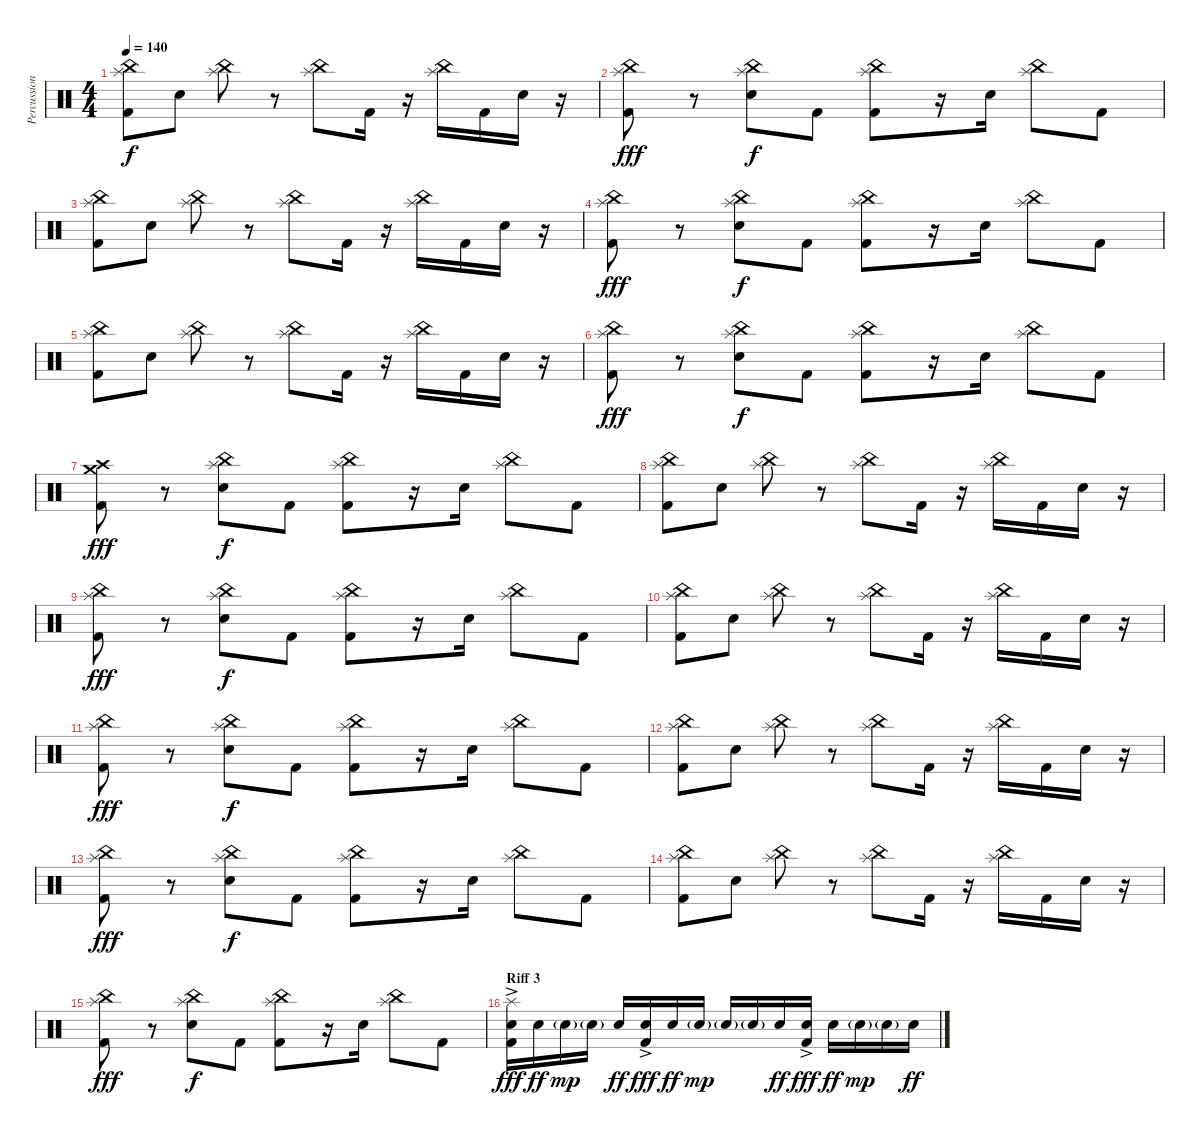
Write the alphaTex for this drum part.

\track ("Percussion" "Percussion") {instrument percussion}
\staff {score}
\articulation defaults
\ts (4 4)
\tempo 140
\clef neutral
\ks c
("Splash (hit)" "China (hit)" "Kick (hit) 2").8{dy f} "Electric Snare (hit)".8 ("Splash (hit)" "China (hit)").8 r.8 ("Splash (hit)" "China (hit)").8 "Kick (hit) 2".16 r.16 ("Splash (hit)" "China (hit)").16 "Kick (hit) 2".16 "Electric Snare (hit)".16 r.16 |
("Splash (hit)" "China (hit)" "Kick (hit) 2").8{dy fff} r.8 ("Splash (hit)" "China (hit)" "Electric Snare (hit)").8{dy f} "Kick (hit) 2".8 ("Splash (hit)" "China (hit)" "Kick (hit) 2").8 r.16 "Electric Snare (hit)".16 ("Splash (hit)" "China (hit)").8 "Kick (hit) 2".8 |
("Splash (hit)" "China (hit)" "Kick (hit) 2").8 "Electric Snare (hit)".8 ("Splash (hit)" "China (hit)").8 r.8 ("Splash (hit)" "China (hit)").8 "Kick (hit) 2".16 r.16 ("Splash (hit)" "China (hit)").16 "Kick (hit) 2".16 "Electric Snare (hit)".16 r.16 |
("Splash (hit)" "China (hit)" "Kick (hit) 2").8{dy fff} r.8 ("Splash (hit)" "China (hit)" "Electric Snare (hit)").8{dy f} "Kick (hit) 2".8 ("Splash (hit)" "China (hit)" "Kick (hit) 2").8 r.16 "Electric Snare (hit)".16 ("Splash (hit)" "China (hit)").8 "Kick (hit) 2".8 |
("Splash (hit)" "China (hit)" "Kick (hit) 2").8 "Electric Snare (hit)".8 ("Splash (hit)" "China (hit)").8 r.8 ("Splash (hit)" "China (hit)").8 "Kick (hit) 2".16 r.16 ("Splash (hit)" "China (hit)").16 "Kick (hit) 2".16 "Electric Snare (hit)".16 r.16 |
("Splash (hit)" "China (hit)" "Kick (hit) 2").8{dy fff} r.8 ("Splash (hit)" "China (hit)" "Electric Snare (hit)").8{dy f} "Kick (hit) 2".8 ("Splash (hit)" "China (hit)" "Kick (hit) 2").8 r.16 "Electric Snare (hit)".16 ("Splash (hit)" "China (hit)").8 "Kick (hit) 2".8 |
("Crash medium (hit)" "Crash high (hit)" "Kick (hit) 2").8{dy fff} r.8 ("Splash (hit)" "China (hit)" "Electric Snare (hit)").8{dy f} "Kick (hit) 2".8 ("Splash (hit)" "China (hit)" "Kick (hit) 2").8 r.16 "Electric Snare (hit)".16 ("Splash (hit)" "China (hit)").8 "Kick (hit) 2".8 |
("Splash (hit)" "China (hit)" "Kick (hit) 2").8 "Electric Snare (hit)".8 ("Splash (hit)" "China (hit)").8 r.8 ("Splash (hit)" "China (hit)").8 "Kick (hit) 2".16 r.16 ("Splash (hit)" "China (hit)").16 "Kick (hit) 2".16 "Electric Snare (hit)".16 r.16 |
("Splash (hit)" "China (hit)" "Kick (hit) 2").8{dy fff} r.8 ("Splash (hit)" "China (hit)" "Electric Snare (hit)").8{dy f} "Kick (hit) 2".8 ("Splash (hit)" "China (hit)" "Kick (hit) 2").8 r.16 "Electric Snare (hit)".16 ("Splash (hit)" "China (hit)").8 "Kick (hit) 2".8 |
("Splash (hit)" "China (hit)" "Kick (hit) 2").8 "Electric Snare (hit)".8 ("Splash (hit)" "China (hit)").8 r.8 ("Splash (hit)" "China (hit)").8 "Kick (hit) 2".16 r.16 ("Splash (hit)" "China (hit)").16 "Kick (hit) 2".16 "Electric Snare (hit)".16 r.16 |
("Splash (hit)" "China (hit)" "Kick (hit) 2").8{dy fff} r.8 ("Splash (hit)" "China (hit)" "Electric Snare (hit)").8{dy f} "Kick (hit) 2".8 ("Splash (hit)" "China (hit)" "Kick (hit) 2").8 r.16 "Electric Snare (hit)".16 ("Splash (hit)" "China (hit)").8 "Kick (hit) 2".8 |
("Splash (hit)" "China (hit)" "Kick (hit) 2").8 "Electric Snare (hit)".8 ("Splash (hit)" "China (hit)").8 r.8 ("Splash (hit)" "China (hit)").8 "Kick (hit) 2".16 r.16 ("Splash (hit)" "China (hit)").16 "Kick (hit) 2".16 "Electric Snare (hit)".16 r.16 |
("Splash (hit)" "China (hit)" "Kick (hit) 2").8{dy fff} r.8 ("Splash (hit)" "China (hit)" "Electric Snare (hit)").8{dy f} "Kick (hit) 2".8 ("Splash (hit)" "China (hit)" "Kick (hit) 2").8 r.16 "Electric Snare (hit)".16 ("Splash (hit)" "China (hit)").8 "Kick (hit) 2".8 |
("Splash (hit)" "China (hit)" "Kick (hit) 2").8 "Electric Snare (hit)".8 ("Splash (hit)" "China (hit)").8 r.8 ("Splash (hit)" "China (hit)").8 "Kick (hit) 2".16 r.16 ("Splash (hit)" "China (hit)").16 "Kick (hit) 2".16 "Electric Snare (hit)".16 r.16 |
("Splash (hit)" "China (hit)" "Kick (hit) 2").8{dy fff} r.8 ("Splash (hit)" "China (hit)" "Electric Snare (hit)").8{dy f} "Kick (hit) 2".8 ("Splash (hit)" "China (hit)" "Kick (hit) 2").8 r.16 "Electric Snare (hit)".16 ("Splash (hit)" "China (hit)").8 "Kick (hit) 2".8 |
\section ("" "Riff 3")
("Splash (hit)" "Electric Snare (hit)"{ac} "Kick (hit) 2").16{dy fff} "Electric Snare (hit)".16{dy ff} "Electric Snare (hit)"{g}.16{dy mp} "Electric Snare (hit)"{g}.16 "Electric Snare (hit)".16{dy ff} ("Electric Snare (hit)"{ac} "Kick (hit) 2").16{dy fff} "Electric Snare (hit)".16{dy ff} "Electric Snare (hit)"{g}.16{dy mp} "Electric Snare (hit)"{g}.16 "Electric Snare (hit)"{g}.16 "Electric Snare (hit)".16{dy ff} ("Electric Snare (hit)"{ac} "Kick (hit) 2").16{dy fff} "Electric Snare (hit)".16{dy ff} "Electric Snare (hit)"{g}.16{dy mp} "Electric Snare (hit)"{g}.16 "Electric Snare (hit)".16{dy ff}
